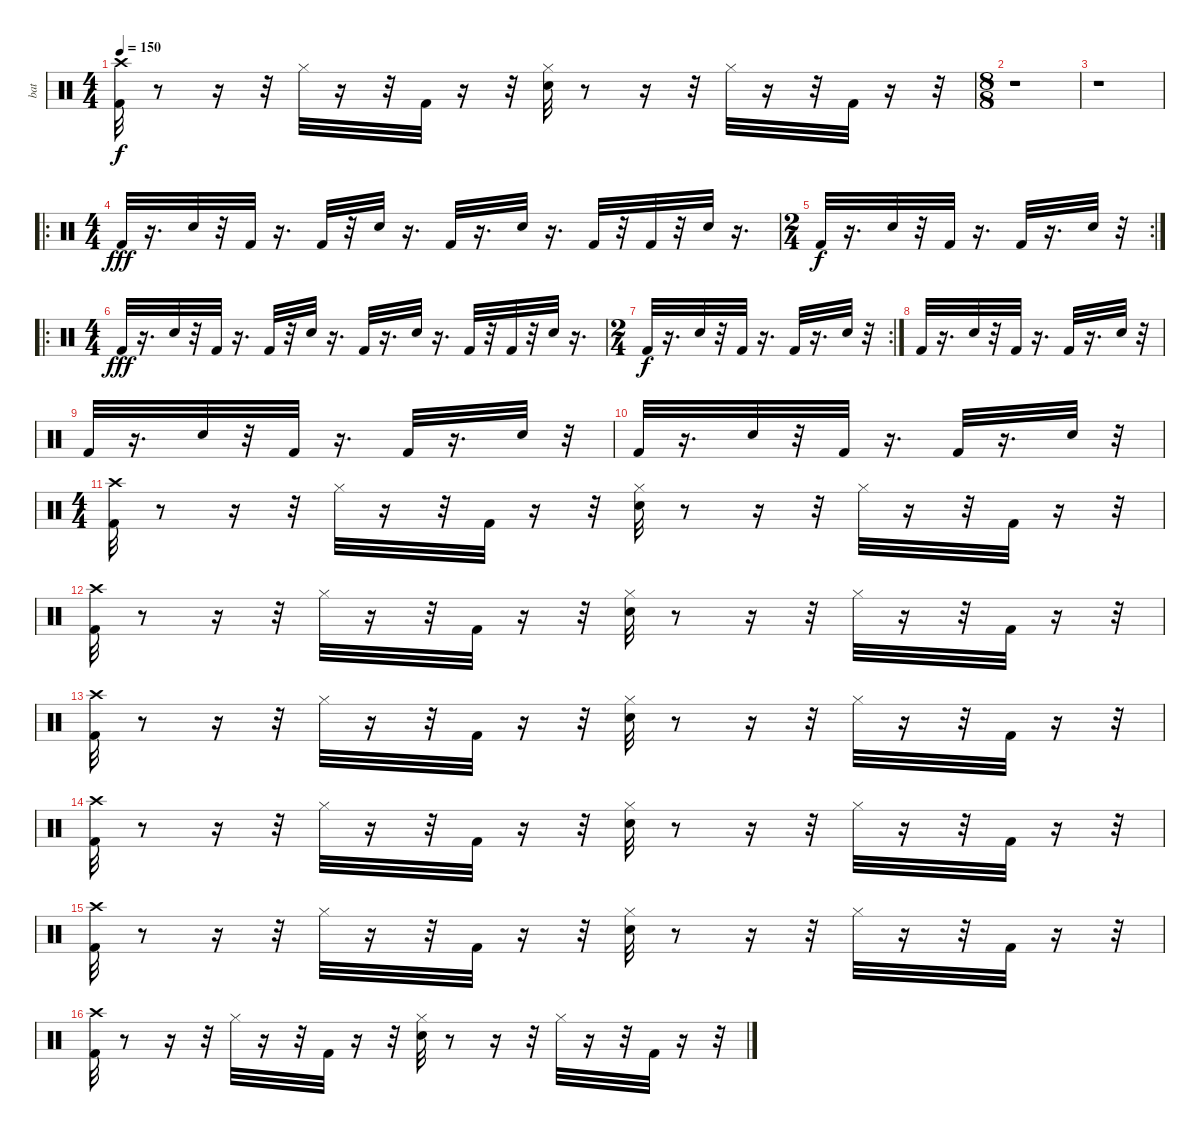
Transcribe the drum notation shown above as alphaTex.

\track ("bat" "bat") {instrument percussion}
\staff {score}
\articulation defaults
\ts (4 4)
\tempo 150
\clef neutral
\ks c
("Kick (hit) 2" "Crash high (hit)").32{dy f} r.8 r.16 r.32 "Hi-Hat (closed)".32 r.16 r.32 "Kick (hit) 2".32 r.16 r.32 ("Snare (hit) 2" "Hi-Hat (closed)").32 r.8 r.16 r.32 "Hi-Hat (closed)".32 r.16 r.32 "Kick (hit) 2".32 r.16 r.32 |
\ts (8 8)
r.1 |
r.1 |
\ro
\ts (4 4)
"Kick (hit) 2".32{dy fff} r.16{d} "Electric Snare (hit)".32 r.32 "Kick (hit) 2".32 r.16{d} "Kick (hit) 2".32 r.32 "Electric Snare (hit)".32 r.16{d} "Kick (hit) 2".32 r.16{d} "Electric Snare (hit)".32 r.16{d} "Kick (hit) 2".32 r.32 "Kick (hit) 2".32 r.32 "Electric Snare (hit)".32 r.16{d} |
\rc 2
\ts (2 4)
"Kick (hit) 2".32{dy f} r.16{d} "Electric Snare (hit)".32 r.32 "Kick (hit) 2".32 r.16{d} "Kick (hit) 2".32 r.16{d} "Electric Snare (hit)".32 r.32 |
\ro
\ts (4 4)
"Kick (hit) 2".32{dy fff} r.16{d} "Electric Snare (hit)".32 r.32 "Kick (hit) 2".32 r.16{d} "Kick (hit) 2".32 r.32 "Electric Snare (hit)".32 r.16{d} "Kick (hit) 2".32 r.16{d} "Electric Snare (hit)".32 r.16{d} "Kick (hit) 2".32 r.32 "Kick (hit) 2".32 r.32 "Electric Snare (hit)".32 r.16{d} |
\rc 2
\ts (2 4)
"Kick (hit) 2".32{dy f} r.16{d} "Electric Snare (hit)".32 r.32 "Kick (hit) 2".32 r.16{d} "Kick (hit) 2".32 r.16{d} "Electric Snare (hit)".32 r.32 |
"Kick (hit) 2".32 r.16{d} "Electric Snare (hit)".32 r.32 "Kick (hit) 2".32 r.16{d} "Kick (hit) 2".32 r.16{d} "Electric Snare (hit)".32 r.32 |
"Kick (hit) 2".32 r.16{d} "Electric Snare (hit)".32 r.32 "Kick (hit) 2".32 r.16{d} "Kick (hit) 2".32 r.16{d} "Electric Snare (hit)".32 r.32 |
"Kick (hit) 2".32 r.16{d} "Electric Snare (hit)".32 r.32 "Kick (hit) 2".32 r.16{d} "Kick (hit) 2".32 r.16{d} "Electric Snare (hit)".32 r.32 |
\ts (4 4)
("Kick (hit) 2" "Crash high (hit)").32 r.8 r.16 r.32 "Hi-Hat (closed)".32 r.16 r.32 "Kick (hit) 2".32 r.16 r.32 ("Snare (hit) 2" "Hi-Hat (closed)").32 r.8 r.16 r.32 "Hi-Hat (closed)".32 r.16 r.32 "Kick (hit) 2".32 r.16 r.32 |
("Kick (hit) 2" "Crash high (hit)").32 r.8 r.16 r.32 "Hi-Hat (closed)".32 r.16 r.32 "Kick (hit) 2".32 r.16 r.32 ("Snare (hit) 2" "Hi-Hat (closed)").32 r.8 r.16 r.32 "Hi-Hat (closed)".32 r.16 r.32 "Kick (hit) 2".32 r.16 r.32 |
("Kick (hit) 2" "Crash high (hit)").32 r.8 r.16 r.32 "Hi-Hat (closed)".32 r.16 r.32 "Kick (hit) 2".32 r.16 r.32 ("Snare (hit) 2" "Hi-Hat (closed)").32 r.8 r.16 r.32 "Hi-Hat (closed)".32 r.16 r.32 "Kick (hit) 2".32 r.16 r.32 |
("Kick (hit) 2" "Crash high (hit)").32 r.8 r.16 r.32 "Hi-Hat (closed)".32 r.16 r.32 "Kick (hit) 2".32 r.16 r.32 ("Snare (hit) 2" "Hi-Hat (closed)").32 r.8 r.16 r.32 "Hi-Hat (closed)".32 r.16 r.32 "Kick (hit) 2".32 r.16 r.32 |
("Kick (hit) 2" "Crash high (hit)").32 r.8 r.16 r.32 "Hi-Hat (closed)".32 r.16 r.32 "Kick (hit) 2".32 r.16 r.32 ("Snare (hit) 2" "Hi-Hat (closed)").32 r.8 r.16 r.32 "Hi-Hat (closed)".32 r.16 r.32 "Kick (hit) 2".32 r.16 r.32 |
("Kick (hit) 2" "Crash high (hit)").32 r.8 r.16 r.32 "Hi-Hat (closed)".32 r.16 r.32 "Kick (hit) 2".32 r.16 r.32 ("Snare (hit) 2" "Hi-Hat (closed)").32 r.8 r.16 r.32 "Hi-Hat (closed)".32 r.16 r.32 "Kick (hit) 2".32 r.16 r.32
